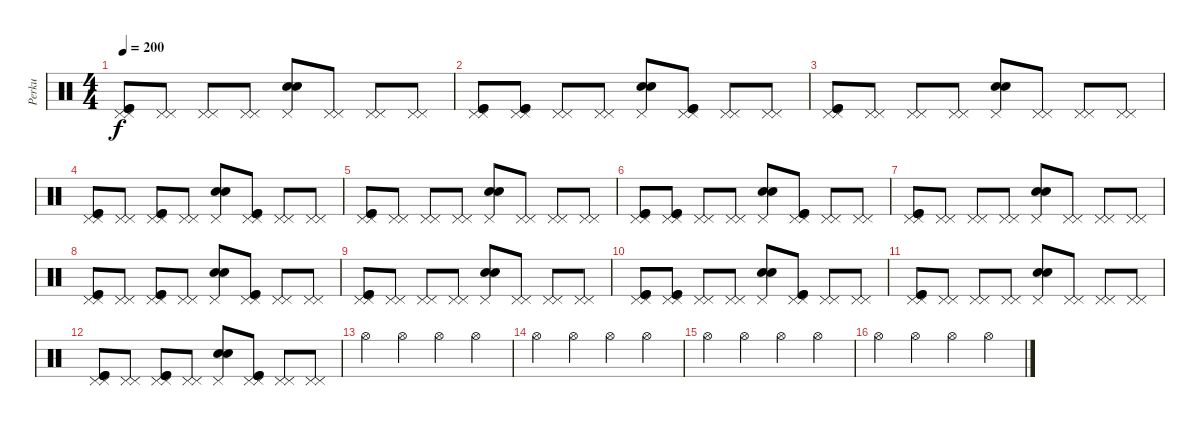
\track ("Perku" "Perku") {instrument percussion}
\staff {score}
\articulation defaults
\ts (4 4)
\tempo 200
\clef neutral
\ks c
("Pedal Hi-Hat (hit)" "Pedal Hi-Hat (hit)" "Kick (hit)" "Kick (hit)").8{dy f} ("Pedal Hi-Hat (hit)" "Pedal Hi-Hat (hit)").8 ("Pedal Hi-Hat (hit)" "Pedal Hi-Hat (hit)").8 ("Pedal Hi-Hat (hit)" "Pedal Hi-Hat (hit)").8 ("Pedal Hi-Hat (hit)" "Electric Snare (hit)" "Electric Snare (hit)").8 ("Pedal Hi-Hat (hit)" "Pedal Hi-Hat (hit)").8 ("Pedal Hi-Hat (hit)" "Pedal Hi-Hat (hit)").8 ("Pedal Hi-Hat (hit)" "Pedal Hi-Hat (hit)").8 |
("Pedal Hi-Hat (hit)" "Pedal Hi-Hat (hit)" "Kick (hit)" "Kick (hit)").8 ("Pedal Hi-Hat (hit)" "Pedal Hi-Hat (hit)" "Kick (hit)" "Kick (hit)").8 ("Pedal Hi-Hat (hit)" "Pedal Hi-Hat (hit)").8 ("Pedal Hi-Hat (hit)" "Pedal Hi-Hat (hit)").8 ("Pedal Hi-Hat (hit)" "Electric Snare (hit)" "Electric Snare (hit)").8 ("Pedal Hi-Hat (hit)" "Pedal Hi-Hat (hit)" "Kick (hit)" "Kick (hit)").8 ("Pedal Hi-Hat (hit)" "Pedal Hi-Hat (hit)").8 ("Pedal Hi-Hat (hit)" "Pedal Hi-Hat (hit)").8 |
("Pedal Hi-Hat (hit)" "Pedal Hi-Hat (hit)" "Kick (hit)" "Kick (hit)").8 ("Pedal Hi-Hat (hit)" "Pedal Hi-Hat (hit)").8 ("Pedal Hi-Hat (hit)" "Pedal Hi-Hat (hit)").8 ("Pedal Hi-Hat (hit)" "Pedal Hi-Hat (hit)").8 ("Pedal Hi-Hat (hit)" "Electric Snare (hit)" "Electric Snare (hit)").8 ("Pedal Hi-Hat (hit)" "Pedal Hi-Hat (hit)").8 ("Pedal Hi-Hat (hit)" "Pedal Hi-Hat (hit)").8 ("Pedal Hi-Hat (hit)" "Pedal Hi-Hat (hit)").8 |
("Pedal Hi-Hat (hit)" "Pedal Hi-Hat (hit)" "Kick (hit)" "Kick (hit)").8 ("Pedal Hi-Hat (hit)" "Pedal Hi-Hat (hit)").8 ("Pedal Hi-Hat (hit)" "Pedal Hi-Hat (hit)" "Kick (hit)" "Kick (hit)").8 ("Pedal Hi-Hat (hit)" "Pedal Hi-Hat (hit)").8 ("Pedal Hi-Hat (hit)" "Electric Snare (hit)" "Electric Snare (hit)").8 ("Pedal Hi-Hat (hit)" "Pedal Hi-Hat (hit)" "Kick (hit)" "Kick (hit)").8 ("Pedal Hi-Hat (hit)" "Pedal Hi-Hat (hit)").8 ("Pedal Hi-Hat (hit)" "Pedal Hi-Hat (hit)").8 |
("Pedal Hi-Hat (hit)" "Pedal Hi-Hat (hit)" "Kick (hit)" "Kick (hit)").8 ("Pedal Hi-Hat (hit)" "Pedal Hi-Hat (hit)").8 ("Pedal Hi-Hat (hit)" "Pedal Hi-Hat (hit)").8 ("Pedal Hi-Hat (hit)" "Pedal Hi-Hat (hit)").8 ("Pedal Hi-Hat (hit)" "Electric Snare (hit)" "Electric Snare (hit)").8 ("Pedal Hi-Hat (hit)" "Pedal Hi-Hat (hit)").8 ("Pedal Hi-Hat (hit)" "Pedal Hi-Hat (hit)").8 ("Pedal Hi-Hat (hit)" "Pedal Hi-Hat (hit)").8 |
("Pedal Hi-Hat (hit)" "Pedal Hi-Hat (hit)" "Kick (hit)" "Kick (hit)").8 ("Pedal Hi-Hat (hit)" "Pedal Hi-Hat (hit)" "Kick (hit)" "Kick (hit)").8 ("Pedal Hi-Hat (hit)" "Pedal Hi-Hat (hit)").8 ("Pedal Hi-Hat (hit)" "Pedal Hi-Hat (hit)").8 ("Pedal Hi-Hat (hit)" "Electric Snare (hit)" "Electric Snare (hit)").8 ("Pedal Hi-Hat (hit)" "Pedal Hi-Hat (hit)" "Kick (hit)" "Kick (hit)").8 ("Pedal Hi-Hat (hit)" "Pedal Hi-Hat (hit)").8 ("Pedal Hi-Hat (hit)" "Pedal Hi-Hat (hit)").8 |
("Pedal Hi-Hat (hit)" "Pedal Hi-Hat (hit)" "Kick (hit)" "Kick (hit)").8 ("Pedal Hi-Hat (hit)" "Pedal Hi-Hat (hit)").8 ("Pedal Hi-Hat (hit)" "Pedal Hi-Hat (hit)").8 ("Pedal Hi-Hat (hit)" "Pedal Hi-Hat (hit)").8 ("Pedal Hi-Hat (hit)" "Electric Snare (hit)" "Electric Snare (hit)").8 ("Pedal Hi-Hat (hit)" "Pedal Hi-Hat (hit)").8 ("Pedal Hi-Hat (hit)" "Pedal Hi-Hat (hit)").8 ("Pedal Hi-Hat (hit)" "Pedal Hi-Hat (hit)").8 |
("Pedal Hi-Hat (hit)" "Pedal Hi-Hat (hit)" "Kick (hit)" "Kick (hit)").8 ("Pedal Hi-Hat (hit)" "Pedal Hi-Hat (hit)").8 ("Pedal Hi-Hat (hit)" "Pedal Hi-Hat (hit)" "Kick (hit)" "Kick (hit)").8 ("Pedal Hi-Hat (hit)" "Pedal Hi-Hat (hit)").8 ("Pedal Hi-Hat (hit)" "Electric Snare (hit)" "Electric Snare (hit)").8 ("Pedal Hi-Hat (hit)" "Pedal Hi-Hat (hit)" "Kick (hit)" "Kick (hit)").8 ("Pedal Hi-Hat (hit)" "Pedal Hi-Hat (hit)").8 ("Pedal Hi-Hat (hit)" "Pedal Hi-Hat (hit)").8 |
("Pedal Hi-Hat (hit)" "Pedal Hi-Hat (hit)" "Kick (hit)" "Kick (hit)").8 ("Pedal Hi-Hat (hit)" "Pedal Hi-Hat (hit)").8 ("Pedal Hi-Hat (hit)" "Pedal Hi-Hat (hit)").8 ("Pedal Hi-Hat (hit)" "Pedal Hi-Hat (hit)").8 ("Pedal Hi-Hat (hit)" "Electric Snare (hit)" "Electric Snare (hit)").8 ("Pedal Hi-Hat (hit)" "Pedal Hi-Hat (hit)").8 ("Pedal Hi-Hat (hit)" "Pedal Hi-Hat (hit)").8 ("Pedal Hi-Hat (hit)" "Pedal Hi-Hat (hit)").8 |
("Pedal Hi-Hat (hit)" "Pedal Hi-Hat (hit)" "Kick (hit)" "Kick (hit)").8 ("Pedal Hi-Hat (hit)" "Pedal Hi-Hat (hit)" "Kick (hit)" "Kick (hit)").8 ("Pedal Hi-Hat (hit)" "Pedal Hi-Hat (hit)").8 ("Pedal Hi-Hat (hit)" "Pedal Hi-Hat (hit)").8 ("Pedal Hi-Hat (hit)" "Electric Snare (hit)" "Electric Snare (hit)").8 ("Pedal Hi-Hat (hit)" "Pedal Hi-Hat (hit)" "Kick (hit)" "Kick (hit)").8 ("Pedal Hi-Hat (hit)" "Pedal Hi-Hat (hit)").8 ("Pedal Hi-Hat (hit)" "Pedal Hi-Hat (hit)").8 |
("Pedal Hi-Hat (hit)" "Pedal Hi-Hat (hit)" "Kick (hit)" "Kick (hit)").8 ("Pedal Hi-Hat (hit)" "Pedal Hi-Hat (hit)").8 ("Pedal Hi-Hat (hit)" "Pedal Hi-Hat (hit)").8 ("Pedal Hi-Hat (hit)" "Pedal Hi-Hat (hit)").8 ("Pedal Hi-Hat (hit)" "Electric Snare (hit)" "Electric Snare (hit)").8 ("Pedal Hi-Hat (hit)" "Pedal Hi-Hat (hit)").8 ("Pedal Hi-Hat (hit)" "Pedal Hi-Hat (hit)").8 ("Pedal Hi-Hat (hit)" "Pedal Hi-Hat (hit)").8 |
("Pedal Hi-Hat (hit)" "Pedal Hi-Hat (hit)" "Kick (hit)" "Kick (hit)").8 ("Pedal Hi-Hat (hit)" "Pedal Hi-Hat (hit)").8 ("Pedal Hi-Hat (hit)" "Pedal Hi-Hat (hit)" "Kick (hit)" "Kick (hit)").8 ("Pedal Hi-Hat (hit)" "Pedal Hi-Hat (hit)").8 ("Pedal Hi-Hat (hit)" "Electric Snare (hit)" "Electric Snare (hit)").8 ("Pedal Hi-Hat (hit)" "Pedal Hi-Hat (hit)" "Kick (hit)" "Kick (hit)").8 ("Pedal Hi-Hat (hit)" "Pedal Hi-Hat (hit)").8 ("Pedal Hi-Hat (hit)" "Pedal Hi-Hat (hit)").8 |
"Hi-Hat (open)".4 "Hi-Hat (open)".4 "Hi-Hat (open)".4 "Hi-Hat (open)".4 |
"Hi-Hat (open)".4 "Hi-Hat (open)".4 "Hi-Hat (open)".4 "Hi-Hat (open)".4 |
"Hi-Hat (open)".4 "Hi-Hat (open)".4 "Hi-Hat (open)".4 "Hi-Hat (open)".4 |
"Hi-Hat (open)".4 "Hi-Hat (open)".4 "Hi-Hat (open)".4 "Hi-Hat (open)".4
